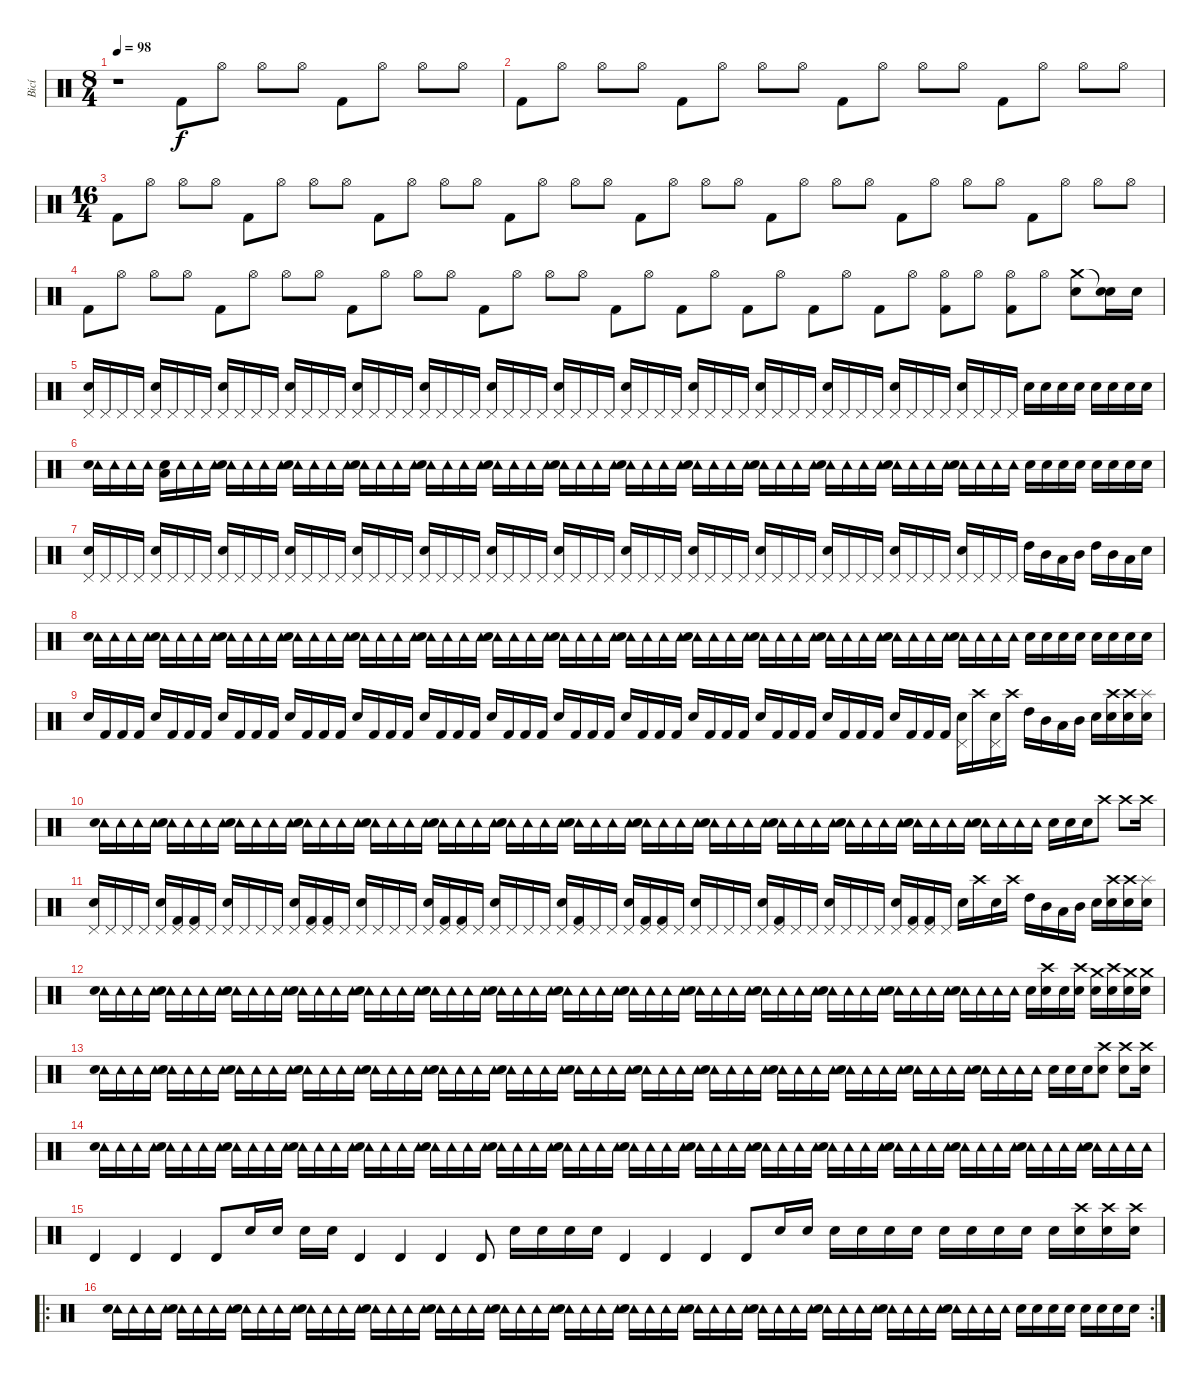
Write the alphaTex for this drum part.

\track ("Bicí" "Bicí") {instrument percussion}
\staff {score}
\articulation defaults
\ts (8 4)
\tempo 98
\clef neutral
\ks c
r.1{dy f} "Kick (hit) 2".8 "Hi-Hat (open)".8 "Hi-Hat (open)".8 "Hi-Hat (open)".8 "Kick (hit) 2".8 "Hi-Hat (open)".8 "Hi-Hat (open)".8 "Hi-Hat (open)".8 |
"Kick (hit) 2".8 "Hi-Hat (open)".8 "Hi-Hat (open)".8 "Hi-Hat (open)".8 "Kick (hit) 2".8 "Hi-Hat (open)".8 "Hi-Hat (open)".8 "Hi-Hat (open)".8 "Kick (hit) 2".8 "Hi-Hat (open)".8 "Hi-Hat (open)".8 "Hi-Hat (open)".8 "Kick (hit) 2".8 "Hi-Hat (open)".8 "Hi-Hat (open)".8 "Hi-Hat (open)".8 |
\ts (16 4)
"Kick (hit) 2".8 "Hi-Hat (open)".8 "Hi-Hat (open)".8 "Hi-Hat (open)".8 "Kick (hit) 2".8 "Hi-Hat (open)".8 "Hi-Hat (open)".8 "Hi-Hat (open)".8 "Kick (hit) 2".8 "Hi-Hat (open)".8 "Hi-Hat (open)".8 "Hi-Hat (open)".8 "Kick (hit) 2".8 "Hi-Hat (open)".8 "Hi-Hat (open)".8 "Hi-Hat (open)".8 "Kick (hit) 2".8 "Hi-Hat (open)".8 "Hi-Hat (open)".8 "Hi-Hat (open)".8 "Kick (hit) 2".8 "Hi-Hat (open)".8 "Hi-Hat (open)".8 "Hi-Hat (open)".8 "Kick (hit) 2".8 "Hi-Hat (open)".8 "Hi-Hat (open)".8 "Hi-Hat (open)".8 "Kick (hit) 2".8 "Hi-Hat (open)".8 "Hi-Hat (open)".8 "Hi-Hat (open)".8 |
"Kick (hit) 2".8 "Hi-Hat (open)".8 "Hi-Hat (open)".8 "Hi-Hat (open)".8 "Kick (hit) 2".8 "Hi-Hat (open)".8 "Hi-Hat (open)".8 "Hi-Hat (open)".8 "Kick (hit) 2".8 "Hi-Hat (open)".8 "Hi-Hat (open)".8 "Hi-Hat (open)".8 "Kick (hit) 2".8 "Hi-Hat (open)".8 "Hi-Hat (open)".8 "Hi-Hat (open)".8 "Kick (hit) 2".8 "Hi-Hat (open)".8 "Kick (hit) 2".8 "Hi-Hat (open)".8 "Kick (hit) 2".8 "Hi-Hat (open)".8 "Kick (hit) 2".8 "Hi-Hat (open)".8 "Kick (hit) 2".8 "Hi-Hat (open)".8 ("Kick (hit) 2" "Hi-Hat (open)").8 "Hi-Hat (open)".8 ("Kick (hit) 2" "Hi-Hat (open)").8 "Hi-Hat (open)".8 ("Electric Snare (hit)" "Crash medium (hit)").8 ("Electric Snare (hit)" "Snare (hit)"{t}).16 "Electric Snare (hit)".16 |
("Pedal Hi-Hat (hit)" "Electric Snare (hit)").16 "Pedal Hi-Hat (hit)".16 "Pedal Hi-Hat (hit)".16 "Pedal Hi-Hat (hit)".16 ("Pedal Hi-Hat (hit)" "Electric Snare (hit)").16 "Pedal Hi-Hat (hit)".16 "Pedal Hi-Hat (hit)".16 "Pedal Hi-Hat (hit)".16 ("Pedal Hi-Hat (hit)" "Electric Snare (hit)").16 "Pedal Hi-Hat (hit)".16 "Pedal Hi-Hat (hit)".16 "Pedal Hi-Hat (hit)".16 ("Pedal Hi-Hat (hit)" "Electric Snare (hit)").16 "Pedal Hi-Hat (hit)".16 "Pedal Hi-Hat (hit)".16 "Pedal Hi-Hat (hit)".16 ("Pedal Hi-Hat (hit)" "Electric Snare (hit)").16 "Pedal Hi-Hat (hit)".16 "Pedal Hi-Hat (hit)".16 "Pedal Hi-Hat (hit)".16 ("Pedal Hi-Hat (hit)" "Electric Snare (hit)").16 "Pedal Hi-Hat (hit)".16 "Pedal Hi-Hat (hit)".16 "Pedal Hi-Hat (hit)".16 ("Pedal Hi-Hat (hit)" "Electric Snare (hit)").16 "Pedal Hi-Hat (hit)".16 "Pedal Hi-Hat (hit)".16 "Pedal Hi-Hat (hit)".16 ("Pedal Hi-Hat (hit)" "Electric Snare (hit)").16 "Pedal Hi-Hat (hit)".16 "Pedal Hi-Hat (hit)".16 "Pedal Hi-Hat (hit)".16 ("Pedal Hi-Hat (hit)" "Electric Snare (hit)").16 "Pedal Hi-Hat (hit)".16 "Pedal Hi-Hat (hit)".16 "Pedal Hi-Hat (hit)".16 ("Pedal Hi-Hat (hit)" "Electric Snare (hit)").16 "Pedal Hi-Hat (hit)".16 "Pedal Hi-Hat (hit)".16 "Pedal Hi-Hat (hit)".16 ("Pedal Hi-Hat (hit)" "Electric Snare (hit)").16 "Pedal Hi-Hat (hit)".16 "Pedal Hi-Hat (hit)".16 "Pedal Hi-Hat (hit)".16 ("Pedal Hi-Hat (hit)" "Electric Snare (hit)").16 "Pedal Hi-Hat (hit)".16 "Pedal Hi-Hat (hit)".16 "Pedal Hi-Hat (hit)".16 ("Pedal Hi-Hat (hit)" "Electric Snare (hit)").16 "Pedal Hi-Hat (hit)".16 "Pedal Hi-Hat (hit)".16 "Pedal Hi-Hat (hit)".16 ("Pedal Hi-Hat (hit)" "Electric Snare (hit)").16 "Pedal Hi-Hat (hit)".16 "Pedal Hi-Hat (hit)".16 "Pedal Hi-Hat (hit)".16 "Electric Snare (hit)".16 "Electric Snare (hit)".16 "Electric Snare (hit)".16 "Electric Snare (hit)".16 "Electric Snare (hit)".16 "Electric Snare (hit)".16 "Electric Snare (hit)".16 "Electric Snare (hit)".16 |
("Tambourine (hit)" "Electric Snare (hit)").16 "Tambourine (hit)".16 "Tambourine (hit)".16 "Tambourine (hit)".16 ("Low Tom (hit)" "Electric Snare (hit)").16 "Tambourine (hit)".16 "Tambourine (hit)".16 "Tambourine (hit)".16 ("Tambourine (hit)" "Electric Snare (hit)").16 "Tambourine (hit)".16 "Tambourine (hit)".16 "Tambourine (hit)".16 ("Tambourine (hit)" "Electric Snare (hit)").16 "Tambourine (hit)".16 "Tambourine (hit)".16 "Tambourine (hit)".16 ("Tambourine (hit)" "Electric Snare (hit)").16 "Tambourine (hit)".16 "Tambourine (hit)".16 "Tambourine (hit)".16 ("Tambourine (hit)" "Electric Snare (hit)").16 "Tambourine (hit)".16 "Tambourine (hit)".16 "Tambourine (hit)".16 ("Tambourine (hit)" "Electric Snare (hit)").16 "Tambourine (hit)".16 "Tambourine (hit)".16 "Tambourine (hit)".16 ("Tambourine (hit)" "Electric Snare (hit)").16 "Tambourine (hit)".16 "Tambourine (hit)".16 "Tambourine (hit)".16 ("Tambourine (hit)" "Electric Snare (hit)").16 "Tambourine (hit)".16 "Tambourine (hit)".16 "Tambourine (hit)".16 ("Tambourine (hit)" "Electric Snare (hit)").16 "Tambourine (hit)".16 "Tambourine (hit)".16 "Tambourine (hit)".16 ("Tambourine (hit)" "Electric Snare (hit)").16 "Tambourine (hit)".16 "Tambourine (hit)".16 "Tambourine (hit)".16 ("Tambourine (hit)" "Electric Snare (hit)").16 "Tambourine (hit)".16 "Tambourine (hit)".16 "Tambourine (hit)".16 ("Tambourine (hit)" "Electric Snare (hit)").16 "Tambourine (hit)".16 "Tambourine (hit)".16 "Tambourine (hit)".16 ("Tambourine (hit)" "Electric Snare (hit)").16 "Tambourine (hit)".16 "Tambourine (hit)".16 "Tambourine (hit)".16 "Electric Snare (hit)".16 "Electric Snare (hit)".16 "Electric Snare (hit)".16 "Electric Snare (hit)".16 "Electric Snare (hit)".16 "Electric Snare (hit)".16 "Electric Snare (hit)".16 "Electric Snare (hit)".16 |
("Pedal Hi-Hat (hit)" "Electric Snare (hit)").16 "Pedal Hi-Hat (hit)".16 "Pedal Hi-Hat (hit)".16 "Pedal Hi-Hat (hit)".16 ("Pedal Hi-Hat (hit)" "Electric Snare (hit)").16 "Pedal Hi-Hat (hit)".16 "Pedal Hi-Hat (hit)".16 "Pedal Hi-Hat (hit)".16 ("Pedal Hi-Hat (hit)" "Electric Snare (hit)").16 "Pedal Hi-Hat (hit)".16 "Pedal Hi-Hat (hit)".16 "Pedal Hi-Hat (hit)".16 ("Pedal Hi-Hat (hit)" "Electric Snare (hit)").16 "Pedal Hi-Hat (hit)".16 "Pedal Hi-Hat (hit)".16 "Pedal Hi-Hat (hit)".16 ("Pedal Hi-Hat (hit)" "Electric Snare (hit)").16 "Pedal Hi-Hat (hit)".16 "Pedal Hi-Hat (hit)".16 "Pedal Hi-Hat (hit)".16 ("Pedal Hi-Hat (hit)" "Electric Snare (hit)").16 "Pedal Hi-Hat (hit)".16 "Pedal Hi-Hat (hit)".16 "Pedal Hi-Hat (hit)".16 ("Pedal Hi-Hat (hit)" "Electric Snare (hit)").16 "Pedal Hi-Hat (hit)".16 "Pedal Hi-Hat (hit)".16 "Pedal Hi-Hat (hit)".16 ("Pedal Hi-Hat (hit)" "Electric Snare (hit)").16 "Pedal Hi-Hat (hit)".16 "Pedal Hi-Hat (hit)".16 "Pedal Hi-Hat (hit)".16 ("Pedal Hi-Hat (hit)" "Electric Snare (hit)").16 "Pedal Hi-Hat (hit)".16 "Pedal Hi-Hat (hit)".16 "Pedal Hi-Hat (hit)".16 ("Pedal Hi-Hat (hit)" "Electric Snare (hit)").16 "Pedal Hi-Hat (hit)".16 "Pedal Hi-Hat (hit)".16 "Pedal Hi-Hat (hit)".16 ("Pedal Hi-Hat (hit)" "Electric Snare (hit)").16 "Pedal Hi-Hat (hit)".16 "Pedal Hi-Hat (hit)".16 "Pedal Hi-Hat (hit)".16 ("Pedal Hi-Hat (hit)" "Electric Snare (hit)").16 "Pedal Hi-Hat (hit)".16 "Pedal Hi-Hat (hit)".16 "Pedal Hi-Hat (hit)".16 ("Pedal Hi-Hat (hit)" "Electric Snare (hit)").16 "Pedal Hi-Hat (hit)".16 "Pedal Hi-Hat (hit)".16 "Pedal Hi-Hat (hit)".16 ("Pedal Hi-Hat (hit)" "Electric Snare (hit)").16 "Pedal Hi-Hat (hit)".16 "Pedal Hi-Hat (hit)".16 "Pedal Hi-Hat (hit)".16 "High Tom (hit)".16 "Mid Tom (hit)".16 "Low Tom (hit)".16 "Mid Tom (hit)".16 "High Tom (hit)".16 "Mid Tom (hit)".16 "Low Tom (hit)".16 "Electric Snare (hit)".16 |
("Tambourine (hit)" "Electric Snare (hit)").16 "Tambourine (hit)".16 "Tambourine (hit)".16 "Tambourine (hit)".16 ("Tambourine (hit)" "Electric Snare (hit)").16 "Tambourine (hit)".16 "Tambourine (hit)".16 "Tambourine (hit)".16 ("Tambourine (hit)" "Electric Snare (hit)").16 "Tambourine (hit)".16 "Tambourine (hit)".16 "Tambourine (hit)".16 ("Tambourine (hit)" "Electric Snare (hit)").16 "Tambourine (hit)".16 "Tambourine (hit)".16 "Tambourine (hit)".16 ("Tambourine (hit)" "Electric Snare (hit)").16 "Tambourine (hit)".16 "Tambourine (hit)".16 "Tambourine (hit)".16 ("Tambourine (hit)" "Electric Snare (hit)").16 "Tambourine (hit)".16 "Tambourine (hit)".16 "Tambourine (hit)".16 ("Tambourine (hit)" "Electric Snare (hit)").16 "Tambourine (hit)".16 "Tambourine (hit)".16 "Tambourine (hit)".16 ("Tambourine (hit)" "Electric Snare (hit)").16 "Tambourine (hit)".16 "Tambourine (hit)".16 "Tambourine (hit)".16 ("Tambourine (hit)" "Electric Snare (hit)").16 "Tambourine (hit)".16 "Tambourine (hit)".16 "Tambourine (hit)".16 ("Tambourine (hit)" "Electric Snare (hit)").16 "Tambourine (hit)".16 "Tambourine (hit)".16 "Tambourine (hit)".16 ("Tambourine (hit)" "Electric Snare (hit)").16 "Tambourine (hit)".16 "Tambourine (hit)".16 "Tambourine (hit)".16 ("Tambourine (hit)" "Electric Snare (hit)").16 "Tambourine (hit)".16 "Tambourine (hit)".16 "Tambourine (hit)".16 ("Tambourine (hit)" "Electric Snare (hit)").16 "Tambourine (hit)".16 "Tambourine (hit)".16 "Tambourine (hit)".16 ("Tambourine (hit)" "Electric Snare (hit)").16 "Tambourine (hit)".16 "Tambourine (hit)".16 "Tambourine (hit)".16 "Electric Snare (hit)".16 "Electric Snare (hit)".16 "Electric Snare (hit)".16 "Electric Snare (hit)".16 "Electric Snare (hit)".16 "Electric Snare (hit)".16 "Electric Snare (hit)".16 "Electric Snare (hit)".16 |
"Electric Snare (hit)".16 "Kick (hit) 2".16 "Kick (hit) 2".16 "Kick (hit) 2".16 "Electric Snare (hit)".16 "Kick (hit) 2".16 "Kick (hit) 2".16 "Kick (hit) 2".16 "Electric Snare (hit)".16 "Kick (hit) 2".16 "Kick (hit) 2".16 "Kick (hit) 2".16 "Electric Snare (hit)".16 "Kick (hit) 2".16 "Kick (hit) 2".16 "Kick (hit) 2".16 "Electric Snare (hit)".16 "Kick (hit) 2".16 "Kick (hit) 2".16 "Kick (hit) 2".16 "Electric Snare (hit)".16 "Kick (hit) 2".16 "Kick (hit) 2".16 "Kick (hit) 2".16 "Electric Snare (hit)".16 "Kick (hit) 2".16 "Kick (hit) 2".16 "Kick (hit) 2".16 "Electric Snare (hit)".16 "Kick (hit) 2".16 "Kick (hit) 2".16 "Kick (hit) 2".16 "Electric Snare (hit)".16 "Kick (hit) 2".16 "Kick (hit) 2".16 "Kick (hit) 2".16 "Electric Snare (hit)".16 "Kick (hit) 2".16 "Kick (hit) 2".16 "Kick (hit) 2".16 "Electric Snare (hit)".16 "Kick (hit) 2".16 "Kick (hit) 2".16 "Kick (hit) 2".16 "Electric Snare (hit)".16 "Kick (hit) 2".16 "Kick (hit) 2".16 "Kick (hit) 2".16 "Electric Snare (hit)".16 "Kick (hit) 2".16 "Kick (hit) 2".16 "Kick (hit) 2".16 ("Pedal Hi-Hat (hit)" "Electric Snare (hit)").16 "Crash high (hit)".16 ("Pedal Hi-Hat (hit)" "Electric Snare (hit)").16 "Crash high (hit)".16 "High Tom (hit)".16 "Mid Tom (hit)".16 "Low Tom (hit)".16 "Mid Tom (hit)".16 "Electric Snare (hit)".16 ("Crash high (hit)" "Electric Snare (hit)").16 ("Crash high (hit)" "Electric Snare (hit)").16 ("Splash (hit)" "Electric Snare (hit)").16 |
("Tambourine (hit)" "Electric Snare (hit)").16 "Tambourine (hit)".16 "Tambourine (hit)".16 "Tambourine (hit)".16 ("Tambourine (hit)" "Electric Snare (hit)").16 "Tambourine (hit)".16 "Tambourine (hit)".16 "Tambourine (hit)".16 ("Tambourine (hit)" "Electric Snare (hit)").16 "Tambourine (hit)".16 "Tambourine (hit)".16 "Tambourine (hit)".16 ("Tambourine (hit)" "Electric Snare (hit)").16 "Tambourine (hit)".16 "Tambourine (hit)".16 "Tambourine (hit)".16 ("Tambourine (hit)" "Electric Snare (hit)").16 "Tambourine (hit)".16 "Tambourine (hit)".16 "Tambourine (hit)".16 ("Tambourine (hit)" "Electric Snare (hit)").16 "Tambourine (hit)".16 "Tambourine (hit)".16 "Tambourine (hit)".16 ("Tambourine (hit)" "Electric Snare (hit)").16 "Tambourine (hit)".16 "Tambourine (hit)".16 "Tambourine (hit)".16 ("Tambourine (hit)" "Electric Snare (hit)").16 "Tambourine (hit)".16 "Tambourine (hit)".16 "Tambourine (hit)".16 ("Tambourine (hit)" "Electric Snare (hit)").16 "Tambourine (hit)".16 "Tambourine (hit)".16 "Tambourine (hit)".16 ("Tambourine (hit)" "Electric Snare (hit)").16 "Tambourine (hit)".16 "Tambourine (hit)".16 "Tambourine (hit)".16 ("Tambourine (hit)" "Electric Snare (hit)").16 "Tambourine (hit)".16 "Tambourine (hit)".16 "Tambourine (hit)".16 ("Tambourine (hit)" "Electric Snare (hit)").16 "Tambourine (hit)".16 "Tambourine (hit)".16 "Tambourine (hit)".16 ("Tambourine (hit)" "Electric Snare (hit)").16 "Tambourine (hit)".16 "Tambourine (hit)".16 "Tambourine (hit)".16 ("Tambourine (hit)" "Electric Snare (hit)").16 "Tambourine (hit)".16 "Tambourine (hit)".16 "Tambourine (hit)".16 "Electric Snare (hit)".16 "Electric Snare (hit)".16 "Electric Snare (hit)".16 "Crash high (hit)".8 "Crash high (hit)".8 "Crash high (hit)".16 |
("Pedal Hi-Hat (hit)" "Electric Snare (hit)").16 "Pedal Hi-Hat (hit)".16 "Pedal Hi-Hat (hit)".16 "Pedal Hi-Hat (hit)".16 ("Pedal Hi-Hat (hit)" "Electric Snare (hit)").16 ("Pedal Hi-Hat (hit)" "Kick (hit) 2").16 ("Pedal Hi-Hat (hit)" "Kick (hit) 2").16 "Pedal Hi-Hat (hit)".16 ("Pedal Hi-Hat (hit)" "Electric Snare (hit)").16 "Pedal Hi-Hat (hit)".16 "Pedal Hi-Hat (hit)".16 "Pedal Hi-Hat (hit)".16 ("Pedal Hi-Hat (hit)" "Electric Snare (hit)").16 ("Pedal Hi-Hat (hit)" "Kick (hit) 2").16 ("Pedal Hi-Hat (hit)" "Kick (hit) 2").16 "Pedal Hi-Hat (hit)".16 ("Pedal Hi-Hat (hit)" "Electric Snare (hit)").16 "Pedal Hi-Hat (hit)".16 "Pedal Hi-Hat (hit)".16 "Pedal Hi-Hat (hit)".16 ("Pedal Hi-Hat (hit)" "Electric Snare (hit)").16 ("Pedal Hi-Hat (hit)" "Kick (hit) 2").16 ("Pedal Hi-Hat (hit)" "Kick (hit) 2").16 "Pedal Hi-Hat (hit)".16 ("Pedal Hi-Hat (hit)" "Electric Snare (hit)").16 "Pedal Hi-Hat (hit)".16 "Pedal Hi-Hat (hit)".16 "Pedal Hi-Hat (hit)".16 ("Pedal Hi-Hat (hit)" "Electric Snare (hit)").16 ("Pedal Hi-Hat (hit)" "Kick (hit) 2").16 "Pedal Hi-Hat (hit)".16 "Pedal Hi-Hat (hit)".16 ("Pedal Hi-Hat (hit)" "Electric Snare (hit)").16 ("Pedal Hi-Hat (hit)" "Kick (hit) 2").16 ("Pedal Hi-Hat (hit)" "Kick (hit) 2").16 "Pedal Hi-Hat (hit)".16 ("Pedal Hi-Hat (hit)" "Electric Snare (hit)").16 "Pedal Hi-Hat (hit)".16 "Pedal Hi-Hat (hit)".16 "Pedal Hi-Hat (hit)".16 ("Pedal Hi-Hat (hit)" "Electric Snare (hit)").16 ("Pedal Hi-Hat (hit)" "Kick (hit) 2").16 "Pedal Hi-Hat (hit)".16 "Pedal Hi-Hat (hit)".16 ("Pedal Hi-Hat (hit)" "Electric Snare (hit)").16 "Pedal Hi-Hat (hit)".16 "Pedal Hi-Hat (hit)".16 "Pedal Hi-Hat (hit)".16 ("Pedal Hi-Hat (hit)" "Electric Snare (hit)").16 ("Pedal Hi-Hat (hit)" "Kick (hit) 2").16 ("Pedal Hi-Hat (hit)" "Kick (hit) 2").16 "Pedal Hi-Hat (hit)".16 "Electric Snare (hit)".16 "Crash high (hit)".16 "Electric Snare (hit)".16 "Crash high (hit)".16 "High Tom (hit)".16 "Mid Tom (hit)".16 "Low Tom (hit)".16 "Mid Tom (hit)".16 "Electric Snare (hit)".16 ("Crash high (hit)" "Electric Snare (hit)").16 ("Crash high (hit)" "Electric Snare (hit)").16 ("Splash (hit)" "Electric Snare (hit)").16 |
("Tambourine (hit)" "Electric Snare (hit)").16 "Tambourine (hit)".16 "Tambourine (hit)".16 "Tambourine (hit)".16 ("Tambourine (hit)" "Electric Snare (hit)").16 "Tambourine (hit)".16 "Tambourine (hit)".16 "Tambourine (hit)".16 ("Tambourine (hit)" "Electric Snare (hit)").16 "Tambourine (hit)".16 "Tambourine (hit)".16 "Tambourine (hit)".16 ("Tambourine (hit)" "Electric Snare (hit)").16 "Tambourine (hit)".16 "Tambourine (hit)".16 "Tambourine (hit)".16 ("Tambourine (hit)" "Electric Snare (hit)").16 "Tambourine (hit)".16 "Tambourine (hit)".16 "Tambourine (hit)".16 ("Tambourine (hit)" "Electric Snare (hit)").16 "Tambourine (hit)".16 "Tambourine (hit)".16 "Tambourine (hit)".16 ("Tambourine (hit)" "Electric Snare (hit)").16 "Tambourine (hit)".16 "Tambourine (hit)".16 "Tambourine (hit)".16 ("Tambourine (hit)" "Electric Snare (hit)").16 "Tambourine (hit)".16 "Tambourine (hit)".16 "Tambourine (hit)".16 ("Tambourine (hit)" "Electric Snare (hit)").16 "Tambourine (hit)".16 "Tambourine (hit)".16 "Tambourine (hit)".16 ("Tambourine (hit)" "Electric Snare (hit)").16 "Tambourine (hit)".16 "Tambourine (hit)".16 "Tambourine (hit)".16 ("Tambourine (hit)" "Electric Snare (hit)").16 "Tambourine (hit)".16 "Tambourine (hit)".16 "Tambourine (hit)".16 ("Tambourine (hit)" "Electric Snare (hit)").16 "Tambourine (hit)".16 "Tambourine (hit)".16 "Tambourine (hit)".16 ("Tambourine (hit)" "Electric Snare (hit)").16 "Tambourine (hit)".16 "Tambourine (hit)".16 "Tambourine (hit)".16 ("Tambourine (hit)" "Electric Snare (hit)").16 "Tambourine (hit)".16 "Tambourine (hit)".16 "Tambourine (hit)".16 "Electric Snare (hit)".16 ("Crash high (hit)" "Electric Snare (hit)").16 "Electric Snare (hit)".16 ("Crash high (hit)" "Electric Snare (hit)").16 ("Crash medium (hit)" "Electric Snare (hit)").16 ("Crash high (hit)" "Electric Snare (hit)").16 ("Crash medium (hit)" "Electric Snare (hit)").16 ("Crash medium (hit)" "Electric Snare (hit)").16 |
("Tambourine (hit)" "Electric Snare (hit)").16 "Tambourine (hit)".16 "Tambourine (hit)".16 "Tambourine (hit)".16 ("Tambourine (hit)" "Electric Snare (hit)").16 "Tambourine (hit)".16 "Tambourine (hit)".16 "Tambourine (hit)".16 ("Tambourine (hit)" "Electric Snare (hit)").16 "Tambourine (hit)".16 "Tambourine (hit)".16 "Tambourine (hit)".16 ("Tambourine (hit)" "Electric Snare (hit)").16 "Tambourine (hit)".16 "Tambourine (hit)".16 "Tambourine (hit)".16 ("Tambourine (hit)" "Electric Snare (hit)").16 "Tambourine (hit)".16 "Tambourine (hit)".16 "Tambourine (hit)".16 ("Tambourine (hit)" "Electric Snare (hit)").16 "Tambourine (hit)".16 "Tambourine (hit)".16 "Tambourine (hit)".16 ("Tambourine (hit)" "Electric Snare (hit)").16 "Tambourine (hit)".16 "Tambourine (hit)".16 "Tambourine (hit)".16 ("Tambourine (hit)" "Electric Snare (hit)").16 "Tambourine (hit)".16 "Tambourine (hit)".16 "Tambourine (hit)".16 ("Tambourine (hit)" "Electric Snare (hit)").16 "Tambourine (hit)".16 "Tambourine (hit)".16 "Tambourine (hit)".16 ("Tambourine (hit)" "Electric Snare (hit)").16 "Tambourine (hit)".16 "Tambourine (hit)".16 "Tambourine (hit)".16 ("Tambourine (hit)" "Electric Snare (hit)").16 "Tambourine (hit)".16 "Tambourine (hit)".16 "Tambourine (hit)".16 ("Tambourine (hit)" "Electric Snare (hit)").16 "Tambourine (hit)".16 "Tambourine (hit)".16 "Tambourine (hit)".16 ("Tambourine (hit)" "Electric Snare (hit)").16 "Tambourine (hit)".16 "Tambourine (hit)".16 "Tambourine (hit)".16 ("Tambourine (hit)" "Electric Snare (hit)").16 "Tambourine (hit)".16 "Tambourine (hit)".16 "Tambourine (hit)".16 "Electric Snare (hit)".16 "Electric Snare (hit)".16 "Electric Snare (hit)".16 ("Crash high (hit)" "Electric Snare (hit)").8 ("Crash high (hit)" "Electric Snare (hit)").8 ("Crash high (hit)" "Electric Snare (hit)").16 |
("Tambourine (hit)" "Electric Snare (hit)").16 "Tambourine (hit)".16 "Tambourine (hit)".16 "Tambourine (hit)".16 ("Tambourine (hit)" "Electric Snare (hit)").16 "Tambourine (hit)".16 "Tambourine (hit)".16 "Tambourine (hit)".16 ("Tambourine (hit)" "Electric Snare (hit)").16 "Tambourine (hit)".16 "Tambourine (hit)".16 "Tambourine (hit)".16 ("Tambourine (hit)" "Electric Snare (hit)").16 "Tambourine (hit)".16 "Tambourine (hit)".16 "Tambourine (hit)".16 ("Tambourine (hit)" "Electric Snare (hit)").16 "Tambourine (hit)".16 "Tambourine (hit)".16 "Tambourine (hit)".16 ("Tambourine (hit)" "Electric Snare (hit)").16 "Tambourine (hit)".16 "Tambourine (hit)".16 "Tambourine (hit)".16 ("Tambourine (hit)" "Electric Snare (hit)").16 "Tambourine (hit)".16 "Tambourine (hit)".16 "Tambourine (hit)".16 ("Tambourine (hit)" "Electric Snare (hit)").16 "Tambourine (hit)".16 "Tambourine (hit)".16 "Tambourine (hit)".16 ("Tambourine (hit)" "Electric Snare (hit)").16 "Tambourine (hit)".16 "Tambourine (hit)".16 "Tambourine (hit)".16 ("Tambourine (hit)" "Electric Snare (hit)").16 "Tambourine (hit)".16 "Tambourine (hit)".16 "Tambourine (hit)".16 ("Tambourine (hit)" "Electric Snare (hit)").16 "Tambourine (hit)".16 "Tambourine (hit)".16 "Tambourine (hit)".16 ("Tambourine (hit)" "Electric Snare (hit)").16 "Tambourine (hit)".16 "Tambourine (hit)".16 "Tambourine (hit)".16 ("Tambourine (hit)" "Electric Snare (hit)").16 "Tambourine (hit)".16 "Tambourine (hit)".16 "Tambourine (hit)".16 ("Tambourine (hit)" "Electric Snare (hit)").16 "Tambourine (hit)".16 "Tambourine (hit)".16 "Tambourine (hit)".16 ("Tambourine (hit)" "Electric Snare (hit)").16 "Tambourine (hit)".16 "Tambourine (hit)".16 "Tambourine (hit)".16 ("Tambourine (hit)" "Electric Snare (hit)").16 "Tambourine (hit)".16 "Tambourine (hit)".16 "Tambourine (hit)".16 |
"Timbale high (hit)".4 "Timbale high (hit)".4 "Timbale high (hit)".4 "Timbale high (hit)".8 "Electric Snare (hit)".16 "Electric Snare (hit)".16 "Electric Snare (hit)".16 "Electric Snare (hit)".16 "Timbale high (hit)".4 "Timbale high (hit)".4 "Timbale high (hit)".4 "Timbale high (hit)".8 "Electric Snare (hit)".16 "Electric Snare (hit)".16 "Electric Snare (hit)".16 "Electric Snare (hit)".16 "Timbale high (hit)".4 "Timbale high (hit)".4 "Timbale high (hit)".4 "Timbale high (hit)".8 "Electric Snare (hit)".16 "Electric Snare (hit)".16 "Electric Snare (hit)".16 "Electric Snare (hit)".16 "Electric Snare (hit)".16 "Electric Snare (hit)".16 "Electric Snare (hit)".16 "Electric Snare (hit)".16 "Electric Snare (hit)".16 "Electric Snare (hit)".16 "Electric Snare (hit)".16 ("Crash high (hit)" "Electric Snare (hit)").16 ("Crash high (hit)" "Electric Snare (hit)").16 ("Crash high (hit)" "Electric Snare (hit)").16 |
\ro
\rc 2
("Tambourine (hit)" "Electric Snare (hit)").16 "Tambourine (hit)".16 "Tambourine (hit)".16 "Tambourine (hit)".16 ("Tambourine (hit)" "Electric Snare (hit)").16 "Tambourine (hit)".16 "Tambourine (hit)".16 "Tambourine (hit)".16 ("Tambourine (hit)" "Electric Snare (hit)").16 "Tambourine (hit)".16 "Tambourine (hit)".16 "Tambourine (hit)".16 ("Tambourine (hit)" "Electric Snare (hit)").16 "Tambourine (hit)".16 "Tambourine (hit)".16 "Tambourine (hit)".16 ("Tambourine (hit)" "Electric Snare (hit)").16 "Tambourine (hit)".16 "Tambourine (hit)".16 "Tambourine (hit)".16 ("Tambourine (hit)" "Electric Snare (hit)").16 "Tambourine (hit)".16 "Tambourine (hit)".16 "Tambourine (hit)".16 ("Tambourine (hit)" "Electric Snare (hit)").16 "Tambourine (hit)".16 "Tambourine (hit)".16 "Tambourine (hit)".16 ("Tambourine (hit)" "Electric Snare (hit)").16 "Tambourine (hit)".16 "Tambourine (hit)".16 "Tambourine (hit)".16 ("Tambourine (hit)" "Electric Snare (hit)").16 "Tambourine (hit)".16 "Tambourine (hit)".16 "Tambourine (hit)".16 ("Tambourine (hit)" "Electric Snare (hit)").16 "Tambourine (hit)".16 "Tambourine (hit)".16 "Tambourine (hit)".16 ("Tambourine (hit)" "Electric Snare (hit)").16 "Tambourine (hit)".16 "Tambourine (hit)".16 "Tambourine (hit)".16 ("Tambourine (hit)" "Electric Snare (hit)").16 "Tambourine (hit)".16 "Tambourine (hit)".16 "Tambourine (hit)".16 ("Tambourine (hit)" "Electric Snare (hit)").16 "Tambourine (hit)".16 "Tambourine (hit)".16 "Tambourine (hit)".16 ("Tambourine (hit)" "Electric Snare (hit)").16 "Tambourine (hit)".16 "Tambourine (hit)".16 "Tambourine (hit)".16 "Electric Snare (hit)".16 "Electric Snare (hit)".16 "Electric Snare (hit)".16 "Electric Snare (hit)".16 "Electric Snare (hit)".16 "Electric Snare (hit)".16 "Electric Snare (hit)".16 "Electric Snare (hit)".16
